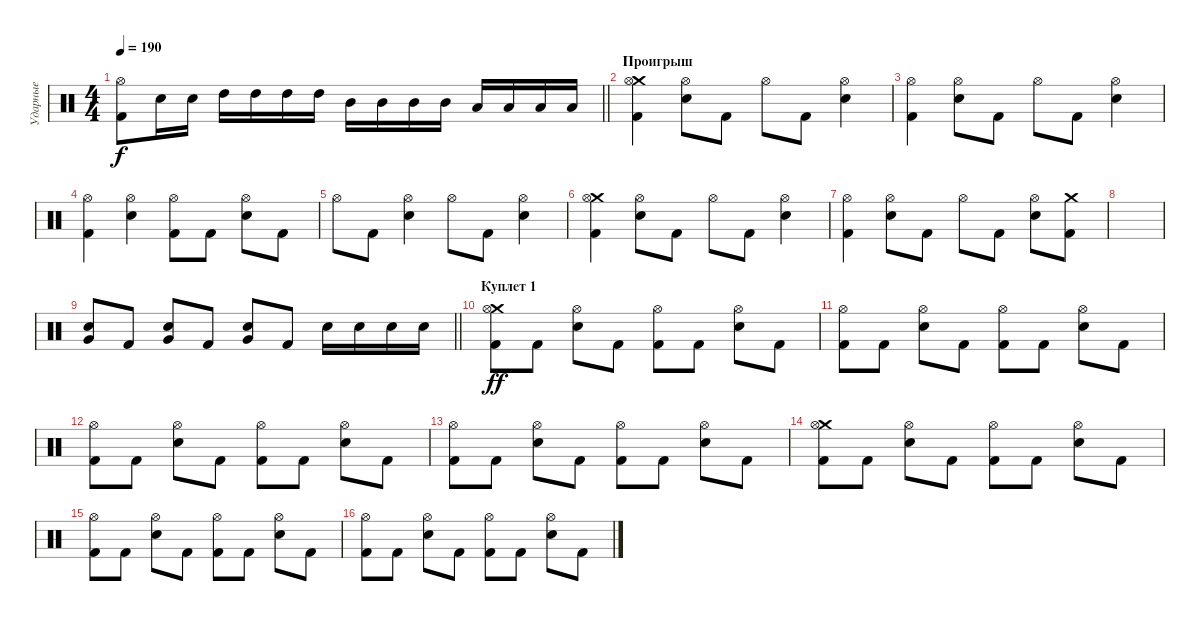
\track ("Ударные" "Ударные") {instrument percussion}
\staff {score}
\articulation defaults
\ts (4 4)
\tempo 190
\clef neutral
\barLineRight lightlight
\ks c
("Kick (hit) 2" "Hi-Hat (open)").8{dy f} "Electric Snare (hit)".16 "Electric Snare (hit)".16 "High Tom (hit)".16 "High Tom (hit)".16 "High Tom (hit)".16 "High Tom (hit)".16 "Mid Tom (hit)".16 "Mid Tom (hit)".16 "Mid Tom (hit)".16 "Mid Tom (hit)".16 "Low Tom (hit)".16 "Low Tom (hit)".16 "Low Tom (hit)".16 "Low Tom (hit)".16 |
\section ("" "Проигрыш")
("Crash medium (hit)" "Kick (hit) 2" "Hi-Hat (open)").4 ("Electric Snare (hit)" "Hi-Hat (open)").8 "Kick (hit) 2".8 "Hi-Hat (open)".8 "Kick (hit) 2".8 ("Electric Snare (hit)" "Hi-Hat (open)").4 |
("Kick (hit) 2" "Hi-Hat (open)").4 ("Electric Snare (hit)" "Hi-Hat (open)").8 "Kick (hit) 2".8 "Hi-Hat (open)".8 "Kick (hit) 2".8 ("Electric Snare (hit)" "Hi-Hat (open)").4 |
("Kick (hit) 2" "Hi-Hat (open)").4 ("Electric Snare (hit)" "Hi-Hat (open)").4 ("Kick (hit) 2" "Hi-Hat (open)").8 "Kick (hit) 2".8 ("Electric Snare (hit)" "Hi-Hat (open)").8 "Kick (hit) 2".8 |
"Hi-Hat (open)".8 "Kick (hit) 2".8 ("Electric Snare (hit)" "Hi-Hat (open)").4 "Hi-Hat (open)".8 "Kick (hit) 2".8 ("Electric Snare (hit)" "Hi-Hat (open)").4 |
("Crash medium (hit)" "Kick (hit) 2" "Hi-Hat (open)").4 ("Electric Snare (hit)" "Hi-Hat (open)").8 "Kick (hit) 2".8 "Hi-Hat (open)".8 "Kick (hit) 2".8 ("Electric Snare (hit)" "Hi-Hat (open)").4 |
("Kick (hit) 2" "Hi-Hat (open)").4 ("Electric Snare (hit)" "Hi-Hat (open)").8 "Kick (hit) 2".8 "Hi-Hat (open)".8 "Kick (hit) 2".8 ("Electric Snare (hit)" "Hi-Hat (open)").8 ("Crash medium (hit)" "Kick (hit) 2").8 |
|
\barLineRight lightlight
("Electric Snare (hit)" "Very Low Tom (hit)").8 "Kick (hit) 2".8 ("Electric Snare (hit)" "Very Low Tom (hit)").8 "Kick (hit) 2".8 ("Electric Snare (hit)" "Very Low Tom (hit)").8 "Kick (hit) 2".8 "Electric Snare (hit)".16 "Electric Snare (hit)".16 "Electric Snare (hit)".16 "Electric Snare (hit)".16 |
\section ("" "Куплет 1")
("Crash medium (hit)" "Kick (hit) 2" "Hi-Hat (open)").8{dy ff} "Kick (hit) 2".8 ("Electric Snare (hit)" "Hi-Hat (open)").8 "Kick (hit) 2".8 ("Kick (hit) 2" "Hi-Hat (open)").8 "Kick (hit) 2".8 ("Electric Snare (hit)" "Hi-Hat (open)").8 "Kick (hit) 2".8 |
("Kick (hit) 2" "Hi-Hat (open)").8 "Kick (hit) 2".8 ("Electric Snare (hit)" "Hi-Hat (open)").8 "Kick (hit) 2".8 ("Kick (hit) 2" "Hi-Hat (open)").8 "Kick (hit) 2".8 ("Electric Snare (hit)" "Hi-Hat (open)").8 "Kick (hit) 2".8 |
("Kick (hit) 2" "Hi-Hat (open)").8 "Kick (hit) 2".8 ("Electric Snare (hit)" "Hi-Hat (open)").8 "Kick (hit) 2".8 ("Kick (hit) 2" "Hi-Hat (open)").8 "Kick (hit) 2".8 ("Electric Snare (hit)" "Hi-Hat (open)").8 "Kick (hit) 2".8 |
("Kick (hit) 2" "Hi-Hat (open)").8 "Kick (hit) 2".8 ("Electric Snare (hit)" "Hi-Hat (open)").8 "Kick (hit) 2".8 ("Kick (hit) 2" "Hi-Hat (open)").8 "Kick (hit) 2".8 ("Electric Snare (hit)" "Hi-Hat (open)").8 "Kick (hit) 2".8 |
("Crash medium (hit)" "Kick (hit) 2" "Hi-Hat (open)").8 "Kick (hit) 2".8 ("Electric Snare (hit)" "Hi-Hat (open)").8 "Kick (hit) 2".8 ("Kick (hit) 2" "Hi-Hat (open)").8 "Kick (hit) 2".8 ("Electric Snare (hit)" "Hi-Hat (open)").8 "Kick (hit) 2".8 |
("Kick (hit) 2" "Hi-Hat (open)").8 "Kick (hit) 2".8 ("Electric Snare (hit)" "Hi-Hat (open)").8 "Kick (hit) 2".8 ("Kick (hit) 2" "Hi-Hat (open)").8 "Kick (hit) 2".8 ("Electric Snare (hit)" "Hi-Hat (open)").8 "Kick (hit) 2".8 |
("Kick (hit) 2" "Hi-Hat (open)").8 "Kick (hit) 2".8 ("Electric Snare (hit)" "Hi-Hat (open)").8 "Kick (hit) 2".8 ("Kick (hit) 2" "Hi-Hat (open)").8 "Kick (hit) 2".8 ("Electric Snare (hit)" "Hi-Hat (open)").8 "Kick (hit) 2".8
